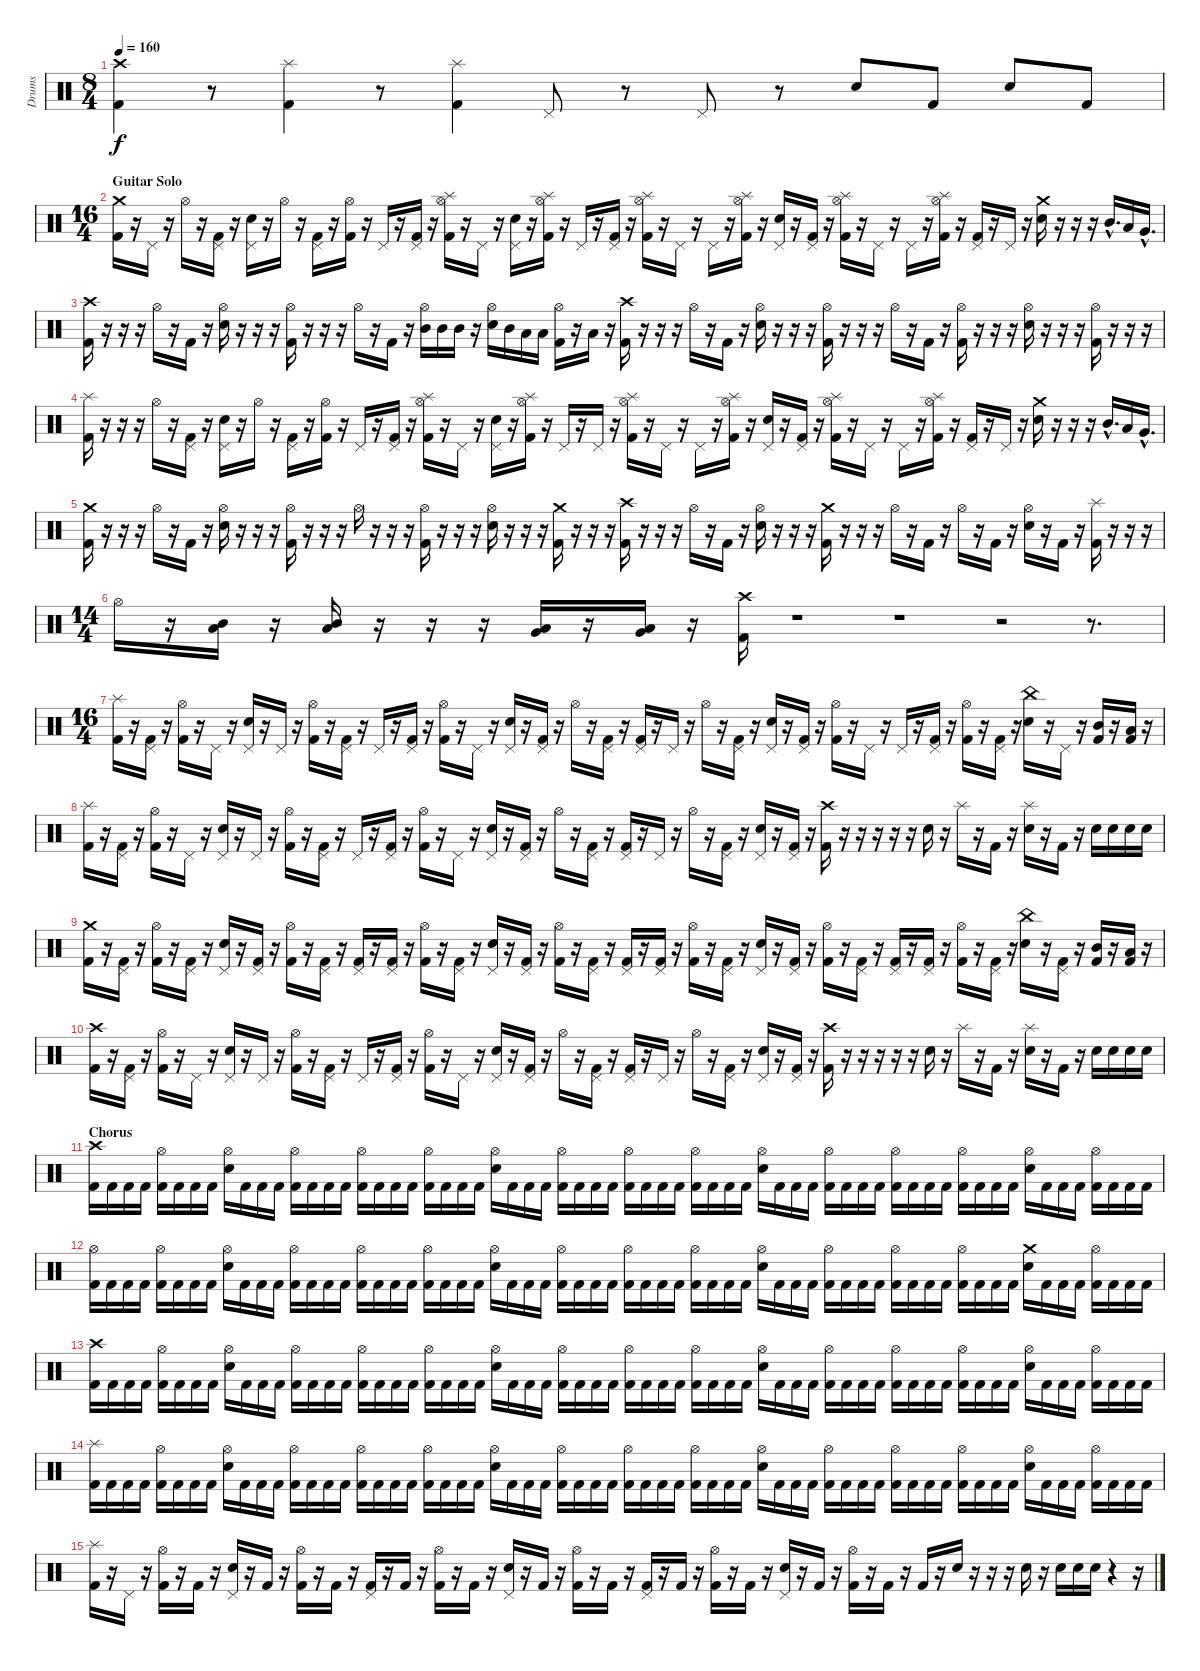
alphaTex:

\track ("Drums" "Drums") {instrument percussion}
\staff {score}
\articulation defaults
\ts (8 4)
\tempo 160
\clef neutral
\ks c
("Crash high (hit)" "Kick (hit) 2").4{dy f} r.8 ("Splash (hit)" "Kick (hit) 2").4 r.8 ("Splash (hit)" "Kick (hit) 2").4 "Pedal Hi-Hat (hit)".8 r.8 "Pedal Hi-Hat (hit)".8 r.8 "Electric Snare (hit)".8 "Kick (hit) 2".8 "Electric Snare (hit)".8 "Kick (hit) 2".8 |
\ts (16 4)
\section ("" "Guitar Solo")
("Crash medium (hit)" "Kick (hit) 2").16 r.16 "Pedal Hi-Hat (hit)".16 r.16 "Hi-Hat (open)".16 r.16 ("Pedal Hi-Hat (hit)" "Kick (hit) 2").16 r.16 ("Pedal Hi-Hat (hit)" "Electric Snare (hit)").16 r.16 "Hi-Hat (open)".16 r.16 ("Pedal Hi-Hat (hit)" "Kick (hit) 2").16 r.16 ("Hi-Hat (open)" "Kick (hit) 2").16 r.16 "Pedal Hi-Hat (hit)".16 r.16 ("Pedal Hi-Hat (hit)" "Kick (hit) 2").16 r.16 ("Hi-Hat (open)" "Splash (hit)" "Kick (hit) 2").16 r.16 "Pedal Hi-Hat (hit)".16 r.16 ("Pedal Hi-Hat (hit)" "Electric Snare (hit)").16 r.16 ("Hi-Hat (open)" "Splash (hit)" "Kick (hit) 2").16 r.16 "Pedal Hi-Hat (hit)".16 r.16 ("Pedal Hi-Hat (hit)" "Kick (hit) 2").16 r.16 ("Hi-Hat (open)" "Splash (hit)" "Kick (hit) 2").16 r.16 "Pedal Hi-Hat (hit)".16 r.16 "Pedal Hi-Hat (hit)".16 r.16 ("Hi-Hat (open)" "Splash (hit)" "Kick (hit) 2").16 r.16 ("Pedal Hi-Hat (hit)" "Electric Snare (hit)").16 r.16 ("Pedal Hi-Hat (hit)" "Kick (hit) 2").16 r.16 ("Hi-Hat (open)" "Splash (hit)" "Kick (hit) 2").16 r.16 "Pedal Hi-Hat (hit)".16 r.16 "Pedal Hi-Hat (hit)".16 r.16 ("Hi-Hat (open)" "Splash (hit)" "Kick (hit) 2").16 r.16 ("Pedal Hi-Hat (hit)" "Kick (hit) 2").16 r.16 "Pedal Hi-Hat (hit)".16 r.16 ("Crash medium (hit)" "Electric Snare (hit)").16 r.16 r.16 r.16 "Mid Tom (hit)"{hac}.16{d} "Low Tom (hit)".16 "Very Low Tom (hit)"{hac}.16{d} |
("Crash high (hit)" "Kick (hit) 2").16 r.16 r.16 r.16 "Hi-Hat (open)".16 r.16 "Kick (hit) 2".16 r.16 ("Hi-Hat (open)" "Electric Snare (hit)").16 r.16 r.16 r.16 ("Hi-Hat (open)" "Kick (hit) 2").16 r.16 r.16 r.16 "Hi-Hat (open)".16 r.16 "Kick (hit) 2".16 r.16 ("Hi-Hat (open)" "Mid Tom (hit)").16 "Mid Tom (hit)".16 "Mid Tom (hit)".16 r.16 ("Hi-Hat (open)" "Electric Snare (hit)").16 "Mid Tom (hit)".16 "Low Tom (hit)".16 "Low Tom (hit)".16 ("Hi-Hat (open)" "Kick (hit) 2").16 r.16 "Low Tom (hit)".16 r.16 ("Crash high (hit)" "Kick (hit) 2").16 r.16 r.16 r.16 "Hi-Hat (open)".16 r.16 "Kick (hit) 2".16 r.16 ("Hi-Hat (open)" "Electric Snare (hit)").16 r.16 r.16 r.16 ("Hi-Hat (open)" "Kick (hit) 2").16 r.16 r.16 r.16 "Hi-Hat (open)".16 r.16 "Kick (hit) 2".16 r.16 ("Hi-Hat (open)" "Kick (hit) 2").16 r.16 r.16 r.16 ("Hi-Hat (open)" "Electric Snare (hit)").16 r.16 r.16 r.16 ("Hi-Hat (open)" "Kick (hit) 2").16 r.16 r.16 r.16 |
("Splash (hit)" "Kick (hit) 2").16 r.16 r.16 r.16 "Hi-Hat (open)".16 r.16 ("Pedal Hi-Hat (hit)" "Kick (hit) 2").16 r.16 ("Pedal Hi-Hat (hit)" "Electric Snare (hit)").16 r.16 "Hi-Hat (open)".16 r.16 ("Pedal Hi-Hat (hit)" "Kick (hit) 2").16 r.16 ("Hi-Hat (open)" "Kick (hit) 2").16 r.16 "Pedal Hi-Hat (hit)".16 r.16 ("Pedal Hi-Hat (hit)" "Kick (hit) 2").16 r.16 ("Hi-Hat (open)" "Splash (hit)" "Kick (hit) 2").16 r.16 "Pedal Hi-Hat (hit)".16 r.16 ("Pedal Hi-Hat (hit)" "Electric Snare (hit)").16 r.16 ("Hi-Hat (open)" "Splash (hit)" "Kick (hit) 2").16 r.16 "Pedal Hi-Hat (hit)".16 r.16 "Pedal Hi-Hat (hit)".16 r.16 ("Hi-Hat (open)" "Splash (hit)" "Kick (hit) 2").16 r.16 "Pedal Hi-Hat (hit)".16 r.16 "Pedal Hi-Hat (hit)".16 r.16 ("Hi-Hat (open)" "Splash (hit)" "Kick (hit) 2").16 r.16 ("Pedal Hi-Hat (hit)" "Electric Snare (hit)").16 r.16 ("Pedal Hi-Hat (hit)" "Kick (hit) 2").16 r.16 ("Hi-Hat (open)" "Splash (hit)" "Kick (hit) 2").16 r.16 "Pedal Hi-Hat (hit)".16 r.16 "Pedal Hi-Hat (hit)".16 r.16 ("Hi-Hat (open)" "Splash (hit)" "Kick (hit) 2").16 r.16 ("Pedal Hi-Hat (hit)" "Kick (hit) 2").16 r.16 "Pedal Hi-Hat (hit)".16 r.16 ("Crash medium (hit)" "Electric Snare (hit)").16 r.16 r.16 r.16 "Mid Tom (hit)"{hac}.16{d} "Low Tom (hit)".16 "Very Low Tom (hit)"{hac}.16{d} |
("Crash medium (hit)" "Kick (hit) 2").16 r.16 r.16 r.16 "Hi-Hat (open)".16 r.16 "Kick (hit) 2".16 r.16 ("Hi-Hat (open)" "Electric Snare (hit)").16 r.16 r.16 r.16 ("Hi-Hat (open)" "Kick (hit) 2").16 r.16 r.16 r.16 "Hi-Hat (open)".16 r.16 r.16 r.16 ("Hi-Hat (open)" "Kick (hit) 2").16 r.16 r.16 r.16 ("Hi-Hat (open)" "Electric Snare (hit)").16 r.16 r.16 r.16 ("Crash medium (hit)" "Kick (hit) 2").16 r.16 r.16 r.16 ("Crash high (hit)" "Kick (hit) 2").16 r.16 r.16 r.16 "Hi-Hat (open)".16 r.16 "Kick (hit) 2".16 r.16 ("Hi-Hat (open)" "Electric Snare (hit)").16 r.16 r.16 r.16 ("Crash medium (hit)" "Kick (hit) 2").16 r.16 r.16 r.16 "Hi-Hat (open)".16 r.16 "Kick (hit) 2".16 r.16 "Hi-Hat (open)".16 r.16 "Kick (hit) 2".16 r.16 ("Hi-Hat (open)" "Electric Snare (hit)").16 r.16 "Kick (hit) 2".16 r.16 ("Splash (hit)" "Kick (hit) 2").16 r.16 r.16 r.16 |
\ts (14 4)
"Hi-Hat (open)".16 r.16 ("Mid Tom (hit)" "Low Tom (hit)").16 r.16 ("Mid Tom (hit)" "Low Tom (hit)").16 r.16 r.16 r.16 ("Low Tom (hit)" "Very Low Tom (hit)").16 r.16 ("Low Tom (hit)" "Very Low Tom (hit)").16 r.16 ("Crash high (hit)" "Kick (hit) 2").16 r.1 r.1 r.2 r.8{d} |
\ts (16 4)
("Splash (hit)" "Kick (hit) 2").16 r.16 ("Pedal Hi-Hat (hit)" "Kick (hit) 2").16 r.16 ("Hi-Hat (open)" "Kick (hit) 2").16 r.16 "Pedal Hi-Hat (hit)".16 r.16 ("Pedal Hi-Hat (hit)" "Electric Snare (hit)").16 r.16 "Pedal Hi-Hat (hit)".16 r.16 ("Hi-Hat (open)" "Kick (hit) 2").16 r.16 ("Pedal Hi-Hat (hit)" "Kick (hit) 2").16 r.16 "Pedal Hi-Hat (hit)".16 r.16 ("Pedal Hi-Hat (hit)" "Kick (hit) 2").16 r.16 ("Hi-Hat (open)" "Kick (hit) 2").16 r.16 "Pedal Hi-Hat (hit)".16 r.16 ("Pedal Hi-Hat (hit)" "Electric Snare (hit)").16 r.16 ("Pedal Hi-Hat (hit)" "Kick (hit) 2").16 r.16 "Hi-Hat (open)".16 r.16 ("Pedal Hi-Hat (hit)" "Kick (hit) 2").16 r.16 ("Pedal Hi-Hat (hit)" "Kick (hit) 2").16 r.16 "Pedal Hi-Hat (hit)".16 r.16 "Hi-Hat (open)".16 r.16 ("Pedal Hi-Hat (hit)" "Kick (hit) 2").16 r.16 ("Pedal Hi-Hat (hit)" "Electric Snare (hit)").16 r.16 ("Pedal Hi-Hat (hit)" "Kick (hit) 2").16 r.16 ("Hi-Hat (open)" "Kick (hit) 2").16 r.16 "Pedal Hi-Hat (hit)".16 r.16 "Pedal Hi-Hat (hit)".16 r.16 ("Pedal Hi-Hat (hit)" "Kick (hit) 2").16 r.16 ("Hi-Hat (open)" "Kick (hit) 2").16 r.16 ("Pedal Hi-Hat (hit)" "Kick (hit) 2").16 r.16 ("China (hit)" "Electric Snare (hit)").16 r.16 "Pedal Hi-Hat (hit)".16 r.16 ("Mid Tom (hit)" "Kick (hit) 2").16 r.16 ("Low Tom (hit)" "Kick (hit) 2").16 r.16 |
("Splash (hit)" "Kick (hit) 2").16 r.16 ("Pedal Hi-Hat (hit)" "Kick (hit) 2").16 r.16 ("Hi-Hat (open)" "Kick (hit) 2").16 r.16 "Pedal Hi-Hat (hit)".16 r.16 ("Pedal Hi-Hat (hit)" "Electric Snare (hit)").16 r.16 "Pedal Hi-Hat (hit)".16 r.16 ("Hi-Hat (open)" "Kick (hit) 2").16 r.16 ("Pedal Hi-Hat (hit)" "Kick (hit) 2").16 r.16 "Pedal Hi-Hat (hit)".16 r.16 ("Pedal Hi-Hat (hit)" "Kick (hit) 2").16 r.16 ("Hi-Hat (open)" "Kick (hit) 2").16 r.16 "Pedal Hi-Hat (hit)".16 r.16 ("Pedal Hi-Hat (hit)" "Electric Snare (hit)").16 r.16 ("Pedal Hi-Hat (hit)" "Kick (hit) 2").16 r.16 "Hi-Hat (open)".16 r.16 ("Pedal Hi-Hat (hit)" "Kick (hit) 2").16 r.16 ("Pedal Hi-Hat (hit)" "Kick (hit) 2").16 r.16 "Pedal Hi-Hat (hit)".16 r.16 "Hi-Hat (open)".16 r.16 ("Pedal Hi-Hat (hit)" "Kick (hit) 2").16 r.16 ("Pedal Hi-Hat (hit)" "Electric Snare (hit)").16 r.16 ("Pedal Hi-Hat (hit)" "Kick (hit) 2").16 r.16 ("Crash high (hit)" "Kick (hit) 2").16 r.16 r.16 r.16 r.16 r.16 "Electric Snare (hit)".16 r.16 "Splash (hit)".16 r.16 "Kick (hit) 2".16 r.16 ("Splash (hit)" "Electric Snare (hit)").16 r.16 "Kick (hit) 2".16 r.16 "Electric Snare (hit)".16 "Electric Snare (hit)".16 "Electric Snare (hit)".16 "Electric Snare (hit)".16 |
("Crash medium (hit)" "Kick (hit) 2").16 r.16 ("Pedal Hi-Hat (hit)" "Kick (hit) 2").16 r.16 ("Hi-Hat (open)" "Kick (hit) 2").16 r.16 ("Pedal Hi-Hat (hit)" "Kick (hit) 2").16 r.16 ("Pedal Hi-Hat (hit)" "Electric Snare (hit)").16 r.16 ("Pedal Hi-Hat (hit)" "Kick (hit) 2").16 r.16 ("Hi-Hat (open)" "Kick (hit) 2").16 r.16 ("Pedal Hi-Hat (hit)" "Kick (hit) 2").16 r.16 ("Pedal Hi-Hat (hit)" "Kick (hit) 2").16 r.16 ("Pedal Hi-Hat (hit)" "Kick (hit) 2").16 r.16 ("Hi-Hat (open)" "Kick (hit) 2").16 r.16 ("Pedal Hi-Hat (hit)" "Kick (hit) 2").16 r.16 ("Pedal Hi-Hat (hit)" "Electric Snare (hit)").16 r.16 ("Pedal Hi-Hat (hit)" "Kick (hit) 2").16 r.16 ("Hi-Hat (open)" "Kick (hit) 2").16 r.16 ("Pedal Hi-Hat (hit)" "Kick (hit) 2").16 r.16 ("Pedal Hi-Hat (hit)" "Kick (hit) 2").16 r.16 ("Pedal Hi-Hat (hit)" "Kick (hit) 2").16 r.16 ("Hi-Hat (open)" "Kick (hit) 2").16 r.16 ("Pedal Hi-Hat (hit)" "Kick (hit) 2").16 r.16 ("Pedal Hi-Hat (hit)" "Electric Snare (hit)").16 r.16 ("Pedal Hi-Hat (hit)" "Kick (hit) 2").16 r.16 ("Hi-Hat (open)" "Kick (hit) 2").16 r.16 ("Pedal Hi-Hat (hit)" "Kick (hit) 2").16 r.16 ("Pedal Hi-Hat (hit)" "Kick (hit) 2").16 r.16 ("Pedal Hi-Hat (hit)" "Kick (hit) 2").16 r.16 ("Hi-Hat (open)" "Kick (hit) 2").16 r.16 ("Pedal Hi-Hat (hit)" "Kick (hit) 2").16 r.16 ("China (hit)" "Electric Snare (hit)").16 r.16 ("Pedal Hi-Hat (hit)" "Kick (hit) 2").16 r.16 ("Mid Tom (hit)" "Kick (hit) 2").16 r.16 ("Low Tom (hit)" "Kick (hit) 2").16 r.16 |
("Crash high (hit)" "Kick (hit) 2").16 r.16 ("Pedal Hi-Hat (hit)" "Kick (hit) 2").16 r.16 ("Hi-Hat (open)" "Kick (hit) 2").16 r.16 "Pedal Hi-Hat (hit)".16 r.16 ("Pedal Hi-Hat (hit)" "Electric Snare (hit)").16 r.16 "Pedal Hi-Hat (hit)".16 r.16 ("Hi-Hat (open)" "Kick (hit) 2").16 r.16 ("Pedal Hi-Hat (hit)" "Kick (hit) 2").16 r.16 "Pedal Hi-Hat (hit)".16 r.16 ("Pedal Hi-Hat (hit)" "Kick (hit) 2").16 r.16 ("Hi-Hat (open)" "Kick (hit) 2").16 r.16 "Pedal Hi-Hat (hit)".16 r.16 ("Pedal Hi-Hat (hit)" "Electric Snare (hit)").16 r.16 ("Pedal Hi-Hat (hit)" "Kick (hit) 2").16 r.16 "Hi-Hat (open)".16 r.16 ("Pedal Hi-Hat (hit)" "Kick (hit) 2").16 r.16 ("Pedal Hi-Hat (hit)" "Kick (hit) 2").16 r.16 "Pedal Hi-Hat (hit)".16 r.16 "Hi-Hat (open)".16 r.16 ("Pedal Hi-Hat (hit)" "Kick (hit) 2").16 r.16 ("Pedal Hi-Hat (hit)" "Electric Snare (hit)").16 r.16 ("Pedal Hi-Hat (hit)" "Kick (hit) 2").16 r.16 ("Crash high (hit)" "Kick (hit) 2").16 r.16 r.16 r.16 r.16 r.16 "Electric Snare (hit)".16 r.16 "Splash (hit)".16 r.16 "Kick (hit) 2".16 r.16 ("Splash (hit)" "Electric Snare (hit)").16 r.16 "Kick (hit) 2".16 r.16 "Electric Snare (hit)".16 "Electric Snare (hit)".16 "Electric Snare (hit)".16 "Electric Snare (hit)".16 |
\section ("" "Chorus")
("Crash high (hit)" "Kick (hit) 2").16 "Kick (hit) 2".16 "Kick (hit) 2".16 "Kick (hit) 2".16 ("Hi-Hat (open)" "Kick (hit) 2").16 "Kick (hit) 2".16 "Kick (hit) 2".16 "Kick (hit) 2".16 ("Hi-Hat (open)" "Electric Snare (hit)").16 "Kick (hit) 2".16 "Kick (hit) 2".16 "Kick (hit) 2".16 ("Hi-Hat (open)" "Kick (hit) 2").16 "Kick (hit) 2".16 "Kick (hit) 2".16 "Kick (hit) 2".16 ("Hi-Hat (open)" "Kick (hit) 2").16 "Kick (hit) 2".16 "Kick (hit) 2".16 "Kick (hit) 2".16 ("Hi-Hat (open)" "Kick (hit) 2").16 "Kick (hit) 2".16 "Kick (hit) 2".16 "Kick (hit) 2".16 ("Hi-Hat (open)" "Electric Snare (hit)").16 "Kick (hit) 2".16 "Kick (hit) 2".16 "Kick (hit) 2".16 ("Hi-Hat (open)" "Kick (hit) 2").16 "Kick (hit) 2".16 "Kick (hit) 2".16 "Kick (hit) 2".16 ("Hi-Hat (open)" "Kick (hit) 2").16 "Kick (hit) 2".16 "Kick (hit) 2".16 "Kick (hit) 2".16 ("Hi-Hat (open)" "Kick (hit) 2").16 "Kick (hit) 2".16 "Kick (hit) 2".16 "Kick (hit) 2".16 ("Hi-Hat (open)" "Electric Snare (hit)").16 "Kick (hit) 2".16 "Kick (hit) 2".16 "Kick (hit) 2".16 ("Hi-Hat (open)" "Kick (hit) 2").16 "Kick (hit) 2".16 "Kick (hit) 2".16 "Kick (hit) 2".16 ("Hi-Hat (open)" "Kick (hit) 2").16 "Kick (hit) 2".16 "Kick (hit) 2".16 "Kick (hit) 2".16 ("Hi-Hat (open)" "Kick (hit) 2").16 "Kick (hit) 2".16 "Kick (hit) 2".16 "Kick (hit) 2".16 ("Hi-Hat (open)" "Electric Snare (hit)").16 "Kick (hit) 2".16 "Kick (hit) 2".16 "Kick (hit) 2".16 ("Hi-Hat (open)" "Kick (hit) 2").16 "Kick (hit) 2".16 "Kick (hit) 2".16 "Kick (hit) 2".16 |
("Hi-Hat (open)" "Kick (hit) 2").16 "Kick (hit) 2".16 "Kick (hit) 2".16 "Kick (hit) 2".16 ("Hi-Hat (open)" "Kick (hit) 2").16 "Kick (hit) 2".16 "Kick (hit) 2".16 "Kick (hit) 2".16 ("Hi-Hat (open)" "Electric Snare (hit)").16 "Kick (hit) 2".16 "Kick (hit) 2".16 "Kick (hit) 2".16 ("Hi-Hat (open)" "Kick (hit) 2").16 "Kick (hit) 2".16 "Kick (hit) 2".16 "Kick (hit) 2".16 ("Hi-Hat (open)" "Kick (hit) 2").16 "Kick (hit) 2".16 "Kick (hit) 2".16 "Kick (hit) 2".16 ("Hi-Hat (open)" "Kick (hit) 2").16 "Kick (hit) 2".16 "Kick (hit) 2".16 "Kick (hit) 2".16 ("Hi-Hat (open)" "Electric Snare (hit)").16 "Kick (hit) 2".16 "Kick (hit) 2".16 "Kick (hit) 2".16 ("Hi-Hat (open)" "Kick (hit) 2").16 "Kick (hit) 2".16 "Kick (hit) 2".16 "Kick (hit) 2".16 ("Hi-Hat (open)" "Kick (hit) 2").16 "Kick (hit) 2".16 "Kick (hit) 2".16 "Kick (hit) 2".16 ("Hi-Hat (open)" "Kick (hit) 2").16 "Kick (hit) 2".16 "Kick (hit) 2".16 "Kick (hit) 2".16 ("Hi-Hat (open)" "Electric Snare (hit)").16 "Kick (hit) 2".16 "Kick (hit) 2".16 "Kick (hit) 2".16 ("Hi-Hat (open)" "Kick (hit) 2").16 "Kick (hit) 2".16 "Kick (hit) 2".16 "Kick (hit) 2".16 ("Hi-Hat (open)" "Kick (hit) 2").16 "Kick (hit) 2".16 "Kick (hit) 2".16 "Kick (hit) 2".16 ("Hi-Hat (open)" "Kick (hit) 2").16 "Kick (hit) 2".16 "Kick (hit) 2".16 "Kick (hit) 2".16 ("Crash medium (hit)" "Electric Snare (hit)").16 "Kick (hit) 2".16 "Kick (hit) 2".16 "Kick (hit) 2".16 ("Hi-Hat (open)" "Kick (hit) 2").16 "Kick (hit) 2".16 "Kick (hit) 2".16 "Kick (hit) 2".16 |
("Crash high (hit)" "Kick (hit) 2").16 "Kick (hit) 2".16 "Kick (hit) 2".16 "Kick (hit) 2".16 ("Hi-Hat (open)" "Kick (hit) 2").16 "Kick (hit) 2".16 "Kick (hit) 2".16 "Kick (hit) 2".16 ("Hi-Hat (open)" "Electric Snare (hit)").16 "Kick (hit) 2".16 "Kick (hit) 2".16 "Kick (hit) 2".16 ("Hi-Hat (open)" "Kick (hit) 2").16 "Kick (hit) 2".16 "Kick (hit) 2".16 "Kick (hit) 2".16 ("Hi-Hat (open)" "Kick (hit) 2").16 "Kick (hit) 2".16 "Kick (hit) 2".16 "Kick (hit) 2".16 ("Hi-Hat (open)" "Kick (hit) 2").16 "Kick (hit) 2".16 "Kick (hit) 2".16 "Kick (hit) 2".16 ("Hi-Hat (open)" "Electric Snare (hit)").16 "Kick (hit) 2".16 "Kick (hit) 2".16 "Kick (hit) 2".16 ("Hi-Hat (open)" "Kick (hit) 2").16 "Kick (hit) 2".16 "Kick (hit) 2".16 "Kick (hit) 2".16 ("Hi-Hat (open)" "Kick (hit) 2").16 "Kick (hit) 2".16 "Kick (hit) 2".16 "Kick (hit) 2".16 ("Hi-Hat (open)" "Kick (hit) 2").16 "Kick (hit) 2".16 "Kick (hit) 2".16 "Kick (hit) 2".16 ("Hi-Hat (open)" "Electric Snare (hit)").16 "Kick (hit) 2".16 "Kick (hit) 2".16 "Kick (hit) 2".16 ("Hi-Hat (open)" "Kick (hit) 2").16 "Kick (hit) 2".16 "Kick (hit) 2".16 "Kick (hit) 2".16 ("Hi-Hat (open)" "Kick (hit) 2").16 "Kick (hit) 2".16 "Kick (hit) 2".16 "Kick (hit) 2".16 ("Hi-Hat (open)" "Kick (hit) 2").16 "Kick (hit) 2".16 "Kick (hit) 2".16 "Kick (hit) 2".16 ("Hi-Hat (open)" "Electric Snare (hit)").16 "Kick (hit) 2".16 "Kick (hit) 2".16 "Kick (hit) 2".16 ("Hi-Hat (open)" "Kick (hit) 2").16 "Kick (hit) 2".16 "Kick (hit) 2".16 "Kick (hit) 2".16 |
("Splash (hit)" "Kick (hit) 2").16 "Kick (hit) 2".16 "Kick (hit) 2".16 "Kick (hit) 2".16 ("Hi-Hat (open)" "Kick (hit) 2").16 "Kick (hit) 2".16 "Kick (hit) 2".16 "Kick (hit) 2".16 ("Hi-Hat (open)" "Electric Snare (hit)").16 "Kick (hit) 2".16 "Kick (hit) 2".16 "Kick (hit) 2".16 ("Hi-Hat (open)" "Kick (hit) 2").16 "Kick (hit) 2".16 "Kick (hit) 2".16 "Kick (hit) 2".16 ("Hi-Hat (open)" "Kick (hit) 2").16 "Kick (hit) 2".16 "Kick (hit) 2".16 "Kick (hit) 2".16 ("Hi-Hat (open)" "Kick (hit) 2").16 "Kick (hit) 2".16 "Kick (hit) 2".16 "Kick (hit) 2".16 ("Hi-Hat (open)" "Electric Snare (hit)").16 "Kick (hit) 2".16 "Kick (hit) 2".16 "Kick (hit) 2".16 ("Hi-Hat (open)" "Kick (hit) 2").16 "Kick (hit) 2".16 "Kick (hit) 2".16 "Kick (hit) 2".16 ("Hi-Hat (open)" "Kick (hit) 2").16 "Kick (hit) 2".16 "Kick (hit) 2".16 "Kick (hit) 2".16 ("Hi-Hat (open)" "Kick (hit) 2").16 "Kick (hit) 2".16 "Kick (hit) 2".16 "Kick (hit) 2".16 ("Hi-Hat (open)" "Electric Snare (hit)").16 "Kick (hit) 2".16 "Kick (hit) 2".16 "Kick (hit) 2".16 ("Hi-Hat (open)" "Kick (hit) 2").16 "Kick (hit) 2".16 "Kick (hit) 2".16 "Kick (hit) 2".16 ("Hi-Hat (open)" "Kick (hit) 2").16 "Kick (hit) 2".16 "Kick (hit) 2".16 "Kick (hit) 2".16 ("Hi-Hat (open)" "Kick (hit) 2").16 "Kick (hit) 2".16 "Kick (hit) 2".16 "Kick (hit) 2".16 ("Hi-Hat (open)" "Electric Snare (hit)").16 "Kick (hit) 2".16 "Kick (hit) 2".16 "Kick (hit) 2".16 ("Hi-Hat (open)" "Kick (hit) 2").16 "Kick (hit) 2".16 "Kick (hit) 2".16 "Kick (hit) 2".16 |
("Splash (hit)" "Kick (hit) 2").16 r.16 "Pedal Hi-Hat (hit)".16 r.16 ("Hi-Hat (open)" "Kick (hit) 2").16 r.16 "Kick (hit) 2".16 r.16 ("Pedal Hi-Hat (hit)" "Electric Snare (hit)").16 r.16 "Kick (hit) 2".16 r.16 ("Hi-Hat (open)" "Kick (hit) 2").16 r.16 "Kick (hit) 2".16 r.16 ("Pedal Hi-Hat (hit)" "Kick (hit) 2").16 r.16 "Kick (hit) 2".16 r.16 ("Hi-Hat (open)" "Kick (hit) 2").16 r.16 "Kick (hit) 2".16 r.16 ("Pedal Hi-Hat (hit)" "Electric Snare (hit)").16 r.16 "Kick (hit) 2".16 r.16 ("Hi-Hat (open)" "Kick (hit) 2").16 r.16 "Kick (hit) 2".16 r.16 ("Pedal Hi-Hat (hit)" "Kick (hit) 2").16 r.16 "Kick (hit) 2".16 r.16 ("Hi-Hat (open)" "Kick (hit) 2").16 r.16 "Kick (hit) 2".16 r.16 ("Pedal Hi-Hat (hit)" "Electric Snare (hit)").16 r.16 "Kick (hit) 2".16 r.16 ("Hi-Hat (open)" "Kick (hit) 2").16 r.16 "Kick (hit) 2".16 r.16 "Kick (hit) 2".16 r.16 "Electric Snare (hit)".16 r.16 r.16 r.16 "Electric Snare (hit)".16 r.16 "Electric Snare (hit)".16 "Electric Snare (hit)".16 "Electric Snare (hit)".16 r.4 r.16
